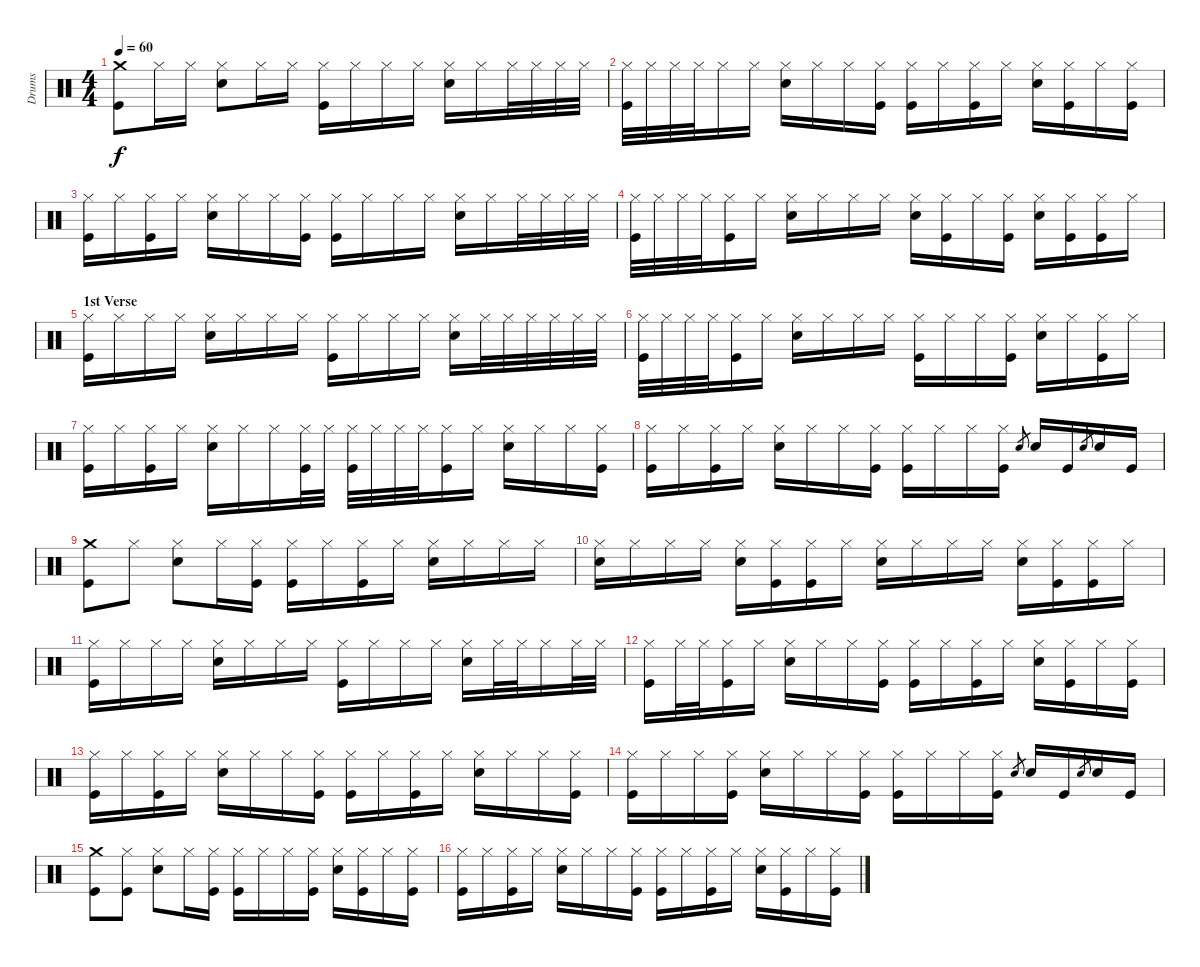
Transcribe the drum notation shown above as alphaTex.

\track ("Drums" "Drums") {instrument percussion}
\staff {score}
\articulation defaults
\ts (4 4)
\tempo 60
\clef neutral
\ks c
("Kick (hit)" "Crash medium (hit)").8{dy f} "Hi-Hat (closed)".16 "Hi-Hat (closed)".16 ("Electric Snare (hit)" "Hi-Hat (closed)").8 "Hi-Hat (closed)".16 "Hi-Hat (closed)".16 ("Kick (hit)" "Hi-Hat (closed)").16 "Hi-Hat (closed)".16 "Hi-Hat (closed)".16 "Hi-Hat (closed)".16 ("Electric Snare (hit)" "Hi-Hat (closed)").16 "Hi-Hat (closed)".16 "Hi-Hat (closed)".32 "Hi-Hat (closed)".32 "Hi-Hat (closed)".32 "Hi-Hat (closed)".32 |
("Kick (hit)" "Hi-Hat (closed)").32 "Hi-Hat (closed)".32 "Hi-Hat (closed)".32 "Hi-Hat (closed)".32 "Hi-Hat (closed)".16 "Hi-Hat (closed)".16 ("Electric Snare (hit)" "Hi-Hat (closed)").16 "Hi-Hat (closed)".16 "Hi-Hat (closed)".16 ("Kick (hit)" "Hi-Hat (closed)").16 ("Kick (hit)" "Hi-Hat (closed)").16 "Hi-Hat (closed)".16 ("Kick (hit)" "Hi-Hat (closed)").16 "Hi-Hat (closed)".16 ("Electric Snare (hit)" "Hi-Hat (closed)").16 ("Kick (hit)" "Hi-Hat (closed)").16 "Hi-Hat (closed)".16 ("Kick (hit)" "Hi-Hat (closed)").16 |
("Kick (hit)" "Hi-Hat (closed)").16 "Hi-Hat (closed)".16 ("Kick (hit)" "Hi-Hat (closed)").16 "Hi-Hat (closed)".16 ("Electric Snare (hit)" "Hi-Hat (closed)").16 "Hi-Hat (closed)".16 "Hi-Hat (closed)".16 ("Kick (hit)" "Hi-Hat (closed)").16 ("Kick (hit)" "Hi-Hat (closed)").16 "Hi-Hat (closed)".16 "Hi-Hat (closed)".16 "Hi-Hat (closed)".16 ("Electric Snare (hit)" "Hi-Hat (closed)").16 "Hi-Hat (closed)".16 "Hi-Hat (closed)".32 "Hi-Hat (closed)".32 "Hi-Hat (closed)".32 "Hi-Hat (closed)".32 |
("Kick (hit)" "Hi-Hat (closed)").32 "Hi-Hat (closed)".32 "Hi-Hat (closed)".32 "Hi-Hat (closed)".32 ("Kick (hit)" "Hi-Hat (closed)").16 "Hi-Hat (closed)".16 ("Electric Snare (hit)" "Hi-Hat (closed)").16 "Hi-Hat (closed)".16 "Hi-Hat (closed)".16 "Hi-Hat (closed)".16 ("Electric Snare (hit)" "Hi-Hat (closed)").16 ("Kick (hit)" "Hi-Hat (closed)").16 "Hi-Hat (closed)".16 ("Kick (hit)" "Hi-Hat (closed)").16 ("Electric Snare (hit)" "Hi-Hat (closed)").16 ("Kick (hit)" "Hi-Hat (closed)").16 ("Kick (hit)" "Hi-Hat (closed)").16 "Hi-Hat (closed)".16 |
\section ("" "1st Verse")
("Kick (hit)" "Hi-Hat (closed)").16 "Hi-Hat (closed)".16 "Hi-Hat (closed)".16 "Hi-Hat (closed)".16 ("Electric Snare (hit)" "Hi-Hat (closed)").16 "Hi-Hat (closed)".16 "Hi-Hat (closed)".16 "Hi-Hat (closed)".16 ("Kick (hit)" "Hi-Hat (closed)").16 "Hi-Hat (closed)".16 "Hi-Hat (closed)".16 "Hi-Hat (closed)".16 ("Electric Snare (hit)" "Hi-Hat (closed)").16 "Hi-Hat (closed)".32 "Hi-Hat (closed)".32 "Hi-Hat (closed)".32 "Hi-Hat (closed)".32 "Hi-Hat (closed)".32 "Hi-Hat (closed)".32 |
("Kick (hit)" "Hi-Hat (closed)").32 "Hi-Hat (closed)".32 "Hi-Hat (closed)".32 "Hi-Hat (closed)".32 ("Kick (hit)" "Hi-Hat (closed)").16 "Hi-Hat (closed)".16 ("Electric Snare (hit)" "Hi-Hat (closed)").16 "Hi-Hat (closed)".16 "Hi-Hat (closed)".16 "Hi-Hat (closed)".16 ("Kick (hit)" "Hi-Hat (closed)").16 "Hi-Hat (closed)".16 "Hi-Hat (closed)".16 ("Kick (hit)" "Hi-Hat (closed)").16 ("Electric Snare (hit)" "Hi-Hat (closed)").16 "Hi-Hat (closed)".16 ("Kick (hit)" "Hi-Hat (closed)").16 "Hi-Hat (closed)".16 |
("Kick (hit)" "Hi-Hat (closed)").16 "Hi-Hat (closed)".16 ("Kick (hit)" "Hi-Hat (closed)").16 "Hi-Hat (closed)".16 ("Electric Snare (hit)" "Hi-Hat (closed)").16 "Hi-Hat (closed)".16 "Hi-Hat (closed)".16 ("Kick (hit)" "Hi-Hat (closed)").32 "Hi-Hat (closed)".32 ("Kick (hit)" "Hi-Hat (closed)").32 "Hi-Hat (closed)".32 "Hi-Hat (closed)".32 "Hi-Hat (closed)".32 ("Kick (hit)" "Hi-Hat (closed)").16 "Hi-Hat (closed)".16 ("Electric Snare (hit)" "Hi-Hat (closed)").16 "Hi-Hat (closed)".16 "Hi-Hat (closed)".16 ("Kick (hit)" "Hi-Hat (closed)").16 |
("Kick (hit)" "Hi-Hat (closed)").16 "Hi-Hat (closed)".16 ("Kick (hit)" "Hi-Hat (closed)").16 "Hi-Hat (closed)".16 ("Electric Snare (hit)" "Hi-Hat (closed)").16 "Hi-Hat (closed)".16 "Hi-Hat (closed)".16 ("Kick (hit)" "Hi-Hat (closed)").16 ("Kick (hit)" "Hi-Hat (closed)").16 "Hi-Hat (closed)".16 "Hi-Hat (closed)".16 ("Kick (hit)" "Hi-Hat (closed)").16 "Electric Snare (hit)".8{gr} "Electric Snare (hit)".16 "Kick (hit)".16 "Electric Snare (hit)".8{gr} "Electric Snare (hit)".16 "Kick (hit)".16 |
("Kick (hit)" "Crash medium (hit)").8 "Hi-Hat (closed)".8 ("Electric Snare (hit)" "Hi-Hat (closed)").8 "Hi-Hat (closed)".16 ("Kick (hit)" "Hi-Hat (closed)").16 ("Kick (hit)" "Hi-Hat (closed)").16 "Hi-Hat (closed)".16 ("Kick (hit)" "Hi-Hat (closed)").16 "Hi-Hat (closed)".16 ("Electric Snare (hit)" "Hi-Hat (closed)").16 "Hi-Hat (closed)".16 "Hi-Hat (closed)".16 "Hi-Hat (closed)".16 |
("Electric Snare (hit)" "Hi-Hat (closed)").16 "Hi-Hat (closed)".16 "Hi-Hat (closed)".16 "Hi-Hat (closed)".16 ("Electric Snare (hit)" "Hi-Hat (closed)").16 ("Kick (hit)" "Hi-Hat (closed)").16 ("Kick (hit)" "Hi-Hat (closed)").16 "Hi-Hat (closed)".16 ("Electric Snare (hit)" "Hi-Hat (closed)").16 "Hi-Hat (closed)".16 "Hi-Hat (closed)".16 "Hi-Hat (closed)".16 ("Electric Snare (hit)" "Hi-Hat (closed)").16 ("Kick (hit)" "Hi-Hat (closed)").16 ("Kick (hit)" "Hi-Hat (closed)").16 "Hi-Hat (closed)".16 |
("Kick (hit)" "Hi-Hat (closed)").16 "Hi-Hat (closed)".16 "Hi-Hat (closed)".16 "Hi-Hat (closed)".16 ("Electric Snare (hit)" "Hi-Hat (closed)").16 "Hi-Hat (closed)".16 "Hi-Hat (closed)".16 "Hi-Hat (closed)".16 ("Kick (hit)" "Hi-Hat (closed)").16 "Hi-Hat (closed)".16 "Hi-Hat (closed)".16 "Hi-Hat (closed)".16 ("Electric Snare (hit)" "Hi-Hat (closed)").16 "Hi-Hat (closed)".32 "Hi-Hat (closed)".32 "Hi-Hat (closed)".16 "Hi-Hat (closed)".32 "Hi-Hat (closed)".32 |
("Kick (hit)" "Hi-Hat (closed)").16 "Hi-Hat (closed)".32 "Hi-Hat (closed)".32 ("Kick (hit)" "Hi-Hat (closed)").16 "Hi-Hat (closed)".16 ("Electric Snare (hit)" "Hi-Hat (closed)").16 "Hi-Hat (closed)".16 "Hi-Hat (closed)".16 ("Kick (hit)" "Hi-Hat (closed)").16 ("Kick (hit)" "Hi-Hat (closed)").16 "Hi-Hat (closed)".16 ("Kick (hit)" "Hi-Hat (closed)").16 "Hi-Hat (closed)".16 ("Electric Snare (hit)" "Hi-Hat (closed)").16 ("Kick (hit)" "Hi-Hat (closed)").16 "Hi-Hat (closed)".16 ("Kick (hit)" "Hi-Hat (closed)").16 |
("Kick (hit)" "Hi-Hat (closed)").16 "Hi-Hat (closed)".16 ("Kick (hit)" "Hi-Hat (closed)").16 "Hi-Hat (closed)".16 ("Electric Snare (hit)" "Hi-Hat (closed)").16 "Hi-Hat (closed)".16 "Hi-Hat (closed)".16 ("Kick (hit)" "Hi-Hat (closed)").16 ("Kick (hit)" "Hi-Hat (closed)").16 "Hi-Hat (closed)".16 ("Kick (hit)" "Hi-Hat (closed)").16 "Hi-Hat (closed)".16 ("Electric Snare (hit)" "Hi-Hat (closed)").16 "Hi-Hat (closed)".16 "Hi-Hat (closed)".16 ("Kick (hit)" "Hi-Hat (closed)").16 |
("Kick (hit)" "Hi-Hat (closed)").16 "Hi-Hat (closed)".16 "Hi-Hat (closed)".16 ("Kick (hit)" "Hi-Hat (closed)").16 ("Electric Snare (hit)" "Hi-Hat (closed)").16 "Hi-Hat (closed)".16 "Hi-Hat (closed)".16 ("Kick (hit)" "Hi-Hat (closed)").16 ("Kick (hit)" "Hi-Hat (closed)").16 "Hi-Hat (closed)".16 "Hi-Hat (closed)".16 ("Kick (hit)" "Hi-Hat (closed)").16 "Electric Snare (hit)".8{gr} "Electric Snare (hit)".16 "Kick (hit)".16 "Electric Snare (hit)".8{gr} "Electric Snare (hit)".16 "Kick (hit)".16 |
("Kick (hit)" "Crash medium (hit)").8 ("Kick (hit)" "Hi-Hat (closed)").8 ("Electric Snare (hit)" "Hi-Hat (closed)").8 "Hi-Hat (closed)".16 ("Kick (hit)" "Hi-Hat (closed)").16 ("Kick (hit)" "Hi-Hat (closed)").16 "Hi-Hat (closed)".16 "Hi-Hat (closed)".16 ("Kick (hit)" "Hi-Hat (closed)").16 ("Electric Snare (hit)" "Hi-Hat (closed)").16 ("Kick (hit)" "Hi-Hat (closed)").16 "Hi-Hat (closed)".16 ("Kick (hit)" "Hi-Hat (closed)").16 |
("Kick (hit)" "Hi-Hat (closed)").16 "Hi-Hat (closed)".16 ("Kick (hit)" "Hi-Hat (closed)").16 "Hi-Hat (closed)".16 ("Electric Snare (hit)" "Hi-Hat (closed)").16 "Hi-Hat (closed)".16 "Hi-Hat (closed)".16 ("Kick (hit)" "Hi-Hat (closed)").16 ("Kick (hit)" "Hi-Hat (closed)").16 "Hi-Hat (closed)".16 ("Kick (hit)" "Hi-Hat (closed)").16 "Hi-Hat (closed)".16 ("Electric Snare (hit)" "Hi-Hat (closed)").16 ("Kick (hit)" "Hi-Hat (closed)").16 "Hi-Hat (closed)".16 ("Kick (hit)" "Hi-Hat (closed)").16
